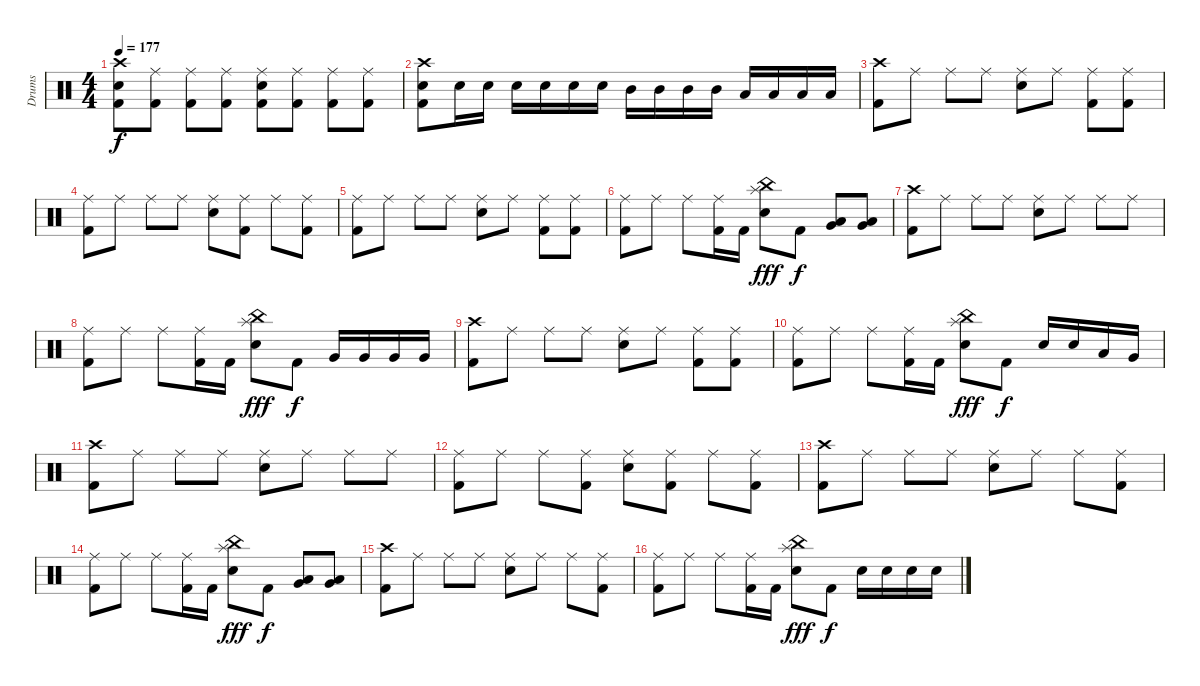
\track ("Drums" "Drums") {instrument percussion}
\staff {score}
\articulation defaults
\ts (4 4)
\tempo 177
\clef neutral
\ks c
("Crash high (hit)" "Electric Snare (hit)" "Kick (hit) 2").8{dy f} ("Ride (middle)" "Kick (hit) 2").8 ("Ride (middle)" "Kick (hit) 2").8 ("Ride (middle)" "Kick (hit) 2").8 ("Electric Snare (hit)" "Ride (middle)" "Kick (hit) 2").8 ("Ride (middle)" "Kick (hit) 2").8 ("Ride (middle)" "Kick (hit) 2").8 ("Ride (middle)" "Kick (hit) 2").8 |
("Crash high (hit)" "Electric Snare (hit)" "Kick (hit) 2").8 "Electric Snare (hit)".16 "Electric Snare (hit)".16 "Electric Snare (hit)".16 "Electric Snare (hit)".16 "Electric Snare (hit)".16 "Electric Snare (hit)".16 "Mid Tom (hit)".16 "Mid Tom (hit)".16 "Mid Tom (hit)".16 "Mid Tom (hit)".16 "Low Tom (hit)".16 "Low Tom (hit)".16 "Low Tom (hit)".16 "Low Tom (hit)".16 |
("Crash high (hit)" "Kick (hit) 2").8 "Ride (middle)".8 "Ride (middle)".8 "Ride (middle)".8 ("Electric Snare (hit)" "Ride (middle)").8 "Ride (middle)".8 ("Kick (hit) 2" "Ride (middle)").8 ("Kick (hit) 2" "Ride (middle)").8 |
("Kick (hit) 2" "Ride (middle)").8 "Ride (middle)".8 "Ride (middle)".8 "Ride (middle)".8 ("Electric Snare (hit)" "Ride (middle)").8 ("Kick (hit) 2" "Ride (middle)").8 "Ride (middle)".8 ("Kick (hit) 2" "Ride (middle)").8 |
("Kick (hit) 2" "Ride (middle)").8 "Ride (middle)".8 "Ride (middle)".8 "Ride (middle)".8 ("Electric Snare (hit)" "Ride (middle)").8 "Ride (middle)".8 ("Kick (hit) 2" "Ride (middle)").8 ("Kick (hit) 2" "Ride (middle)").8 |
("Kick (hit) 2" "Ride (middle)").8 "Ride (middle)".8 "Ride (middle)".8 ("Kick (hit) 2" "Ride (middle)").16 "Kick (hit) 2".16 ("China (hit)" "Splash (hit)" "Electric Snare (hit)").8{dy fff} "Kick (hit) 2".8{dy f} ("Very Low Tom (hit)" "Low Tom (hit)").8 ("Very Low Tom (hit)" "Low Tom (hit)").8 |
("Crash high (hit)" "Kick (hit) 2").8 "Ride (middle)".8 "Ride (middle)".8 "Ride (middle)".8 ("Electric Snare (hit)" "Ride (middle)").8 "Ride (middle)".8 "Ride (middle)".8 "Ride (middle)".8 |
("Kick (hit) 2" "Ride (middle)").8 "Ride (middle)".8 "Ride (middle)".8 ("Kick (hit) 2" "Ride (middle)").16 "Kick (hit) 2".16 ("China (hit)" "Splash (hit)" "Electric Snare (hit)").8{dy fff} "Kick (hit) 2".8{dy f} "Very Low Tom (hit)".16 "Very Low Tom (hit)".16 "Very Low Tom (hit)".16 "Very Low Tom (hit)".16 |
("Crash high (hit)" "Kick (hit) 2").8 "Ride (middle)".8 "Ride (middle)".8 "Ride (middle)".8 ("Electric Snare (hit)" "Ride (middle)").8 "Ride (middle)".8 ("Kick (hit) 2" "Ride (middle)").8 ("Kick (hit) 2" "Ride (middle)").8 |
("Kick (hit) 2" "Ride (middle)").8 "Ride (middle)".8 "Ride (middle)".8 ("Kick (hit) 2" "Ride (middle)").16 "Kick (hit) 2".16 ("China (hit)" "Splash (hit)" "Electric Snare (hit)").8{dy fff} "Kick (hit) 2".8{dy f} "Electric Snare (hit)".16 "Electric Snare (hit)".16 "Low Tom (hit)".16 "Very Low Tom (hit)".16 |
("Crash high (hit)" "Kick (hit) 2").8 "Ride (middle)".8 "Ride (middle)".8 "Ride (middle)".8 ("Electric Snare (hit)" "Ride (middle)").8 "Ride (middle)".8 "Ride (middle)".8 "Ride (middle)".8 |
("Kick (hit) 2" "Ride (middle)").8 "Ride (middle)".8 "Ride (middle)".8 ("Kick (hit) 2" "Ride (middle)").8 ("Electric Snare (hit)" "Ride (middle)").8 ("Kick (hit) 2" "Ride (middle)").8 "Ride (middle)".8 ("Kick (hit) 2" "Ride (middle)").8 |
("Kick (hit) 2" "Crash high (hit)").8 "Ride (middle)".8 "Ride (middle)".8 "Ride (middle)".8 ("Electric Snare (hit)" "Ride (middle)").8 "Ride (middle)".8 "Ride (middle)".8 ("Kick (hit) 2" "Ride (middle)").8 |
("Kick (hit) 2" "Ride (middle)").8 "Ride (middle)".8 "Ride (middle)".8 ("Kick (hit) 2" "Ride (middle)").16 "Kick (hit) 2".16 ("China (hit)" "Splash (hit)" "Electric Snare (hit)").8{dy fff} "Kick (hit) 2".8{dy f} ("Very Low Tom (hit)" "Low Tom (hit)").8 ("Very Low Tom (hit)" "Low Tom (hit)").8 |
("Crash high (hit)" "Kick (hit) 2").8 "Ride (middle)".8 "Ride (middle)".8 "Ride (middle)".8 ("Electric Snare (hit)" "Ride (middle)").8 "Ride (middle)".8 "Ride (middle)".8 ("Kick (hit) 2" "Ride (middle)").8 |
("Kick (hit) 2" "Ride (middle)").8 "Ride (middle)".8 "Ride (middle)".8 ("Kick (hit) 2" "Ride (middle)").16 "Kick (hit) 2".16 ("China (hit)" "Splash (hit)" "Electric Snare (hit)").8{dy fff} "Kick (hit) 2".8{dy f} "Electric Snare (hit)".16 "Electric Snare (hit)".16 "Electric Snare (hit)".16 "Electric Snare (hit)".16
